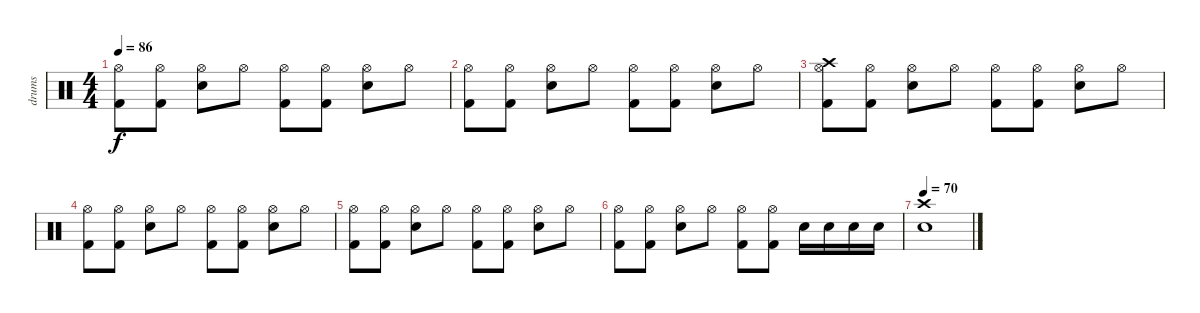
\track ("drums" "drums") {instrument percussion}
\staff {score}
\articulation defaults
\ts (4 4)
\tempo 86
\clef neutral
\ks c
("Kick (hit) 2" "Hi-Hat (open)").8{dy f} ("Kick (hit) 2" "Hi-Hat (open)").8 ("Electric Snare (hit)" "Hi-Hat (open)").8 "Hi-Hat (open)".8 ("Kick (hit) 2" "Hi-Hat (open)").8 ("Kick (hit) 2" "Hi-Hat (open)").8 ("Electric Snare (hit)" "Hi-Hat (open)").8 "Hi-Hat (open)".8 |
("Kick (hit) 2" "Hi-Hat (open)").8 ("Kick (hit) 2" "Hi-Hat (open)").8 ("Electric Snare (hit)" "Hi-Hat (open)").8 "Hi-Hat (open)".8 ("Kick (hit) 2" "Hi-Hat (open)").8 ("Kick (hit) 2" "Hi-Hat (open)").8 ("Electric Snare (hit)" "Hi-Hat (open)").8 "Hi-Hat (open)".8 |
("Kick (hit) 2" "Hi-Hat (open)" "Crash high (hit)").8 ("Kick (hit) 2" "Hi-Hat (open)").8 ("Electric Snare (hit)" "Hi-Hat (open)").8 "Hi-Hat (open)".8 ("Kick (hit) 2" "Hi-Hat (open)").8 ("Kick (hit) 2" "Hi-Hat (open)").8 ("Electric Snare (hit)" "Hi-Hat (open)").8 "Hi-Hat (open)".8 |
("Kick (hit) 2" "Hi-Hat (open)").8 ("Kick (hit) 2" "Hi-Hat (open)").8 ("Electric Snare (hit)" "Hi-Hat (open)").8 "Hi-Hat (open)".8 ("Kick (hit) 2" "Hi-Hat (open)").8 ("Kick (hit) 2" "Hi-Hat (open)").8 ("Electric Snare (hit)" "Hi-Hat (open)").8 "Hi-Hat (open)".8 |
("Kick (hit) 2" "Hi-Hat (open)").8 ("Kick (hit) 2" "Hi-Hat (open)").8 ("Electric Snare (hit)" "Hi-Hat (open)").8 "Hi-Hat (open)".8 ("Kick (hit) 2" "Hi-Hat (open)").8 ("Kick (hit) 2" "Hi-Hat (open)").8 ("Electric Snare (hit)" "Hi-Hat (open)").8 "Hi-Hat (open)".8 |
("Kick (hit) 2" "Hi-Hat (open)").8 ("Kick (hit) 2" "Hi-Hat (open)").8 ("Electric Snare (hit)" "Hi-Hat (open)").8 "Hi-Hat (open)".8 ("Kick (hit) 2" "Hi-Hat (open)").8 ("Kick (hit) 2" "Hi-Hat (open)").8 "Electric Snare (hit)".16 "Electric Snare (hit)".16 "Electric Snare (hit)".16 "Electric Snare (hit)".16 |
\tempo 70
("Electric Snare (hit)" "Crash high (hit)").1
